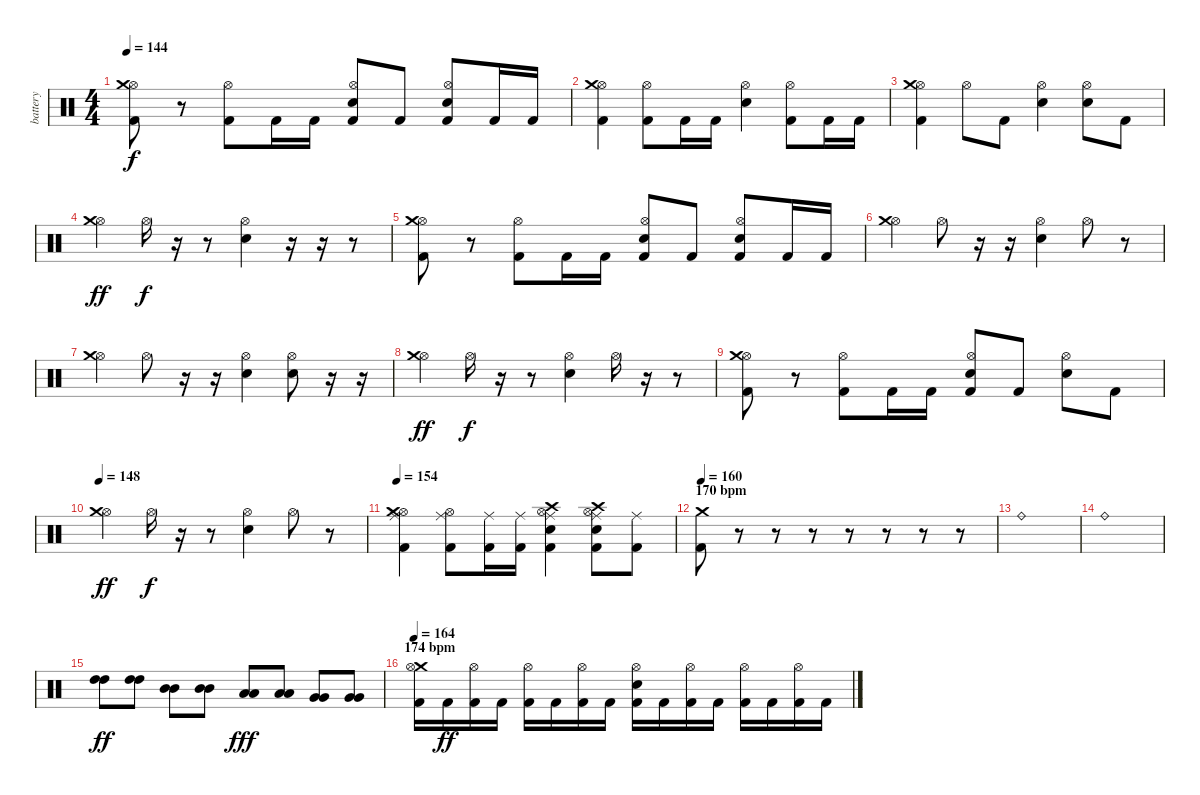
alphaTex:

\track ("battery" "battery") {instrument percussion}
\staff {score}
\articulation defaults
\ts (4 4)
\tempo 144
\clef neutral
\ks c
("Kick (hit) 2" "Hi-Hat (open)" "Crash medium (hit)").8{dy f} r.8 ("Kick (hit) 2" "Hi-Hat (open)").8 "Kick (hit) 2".16 "Kick (hit) 2".16 ("Electric Snare (hit)" "Hi-Hat (open)" "Kick (hit) 2").8 "Kick (hit) 2".8 ("Kick (hit) 2" "Electric Snare (hit)" "Hi-Hat (open)").8 "Kick (hit) 2".16 "Kick (hit) 2".16 |
("Kick (hit) 2" "Hi-Hat (open)" "Crash medium (hit)").4 ("Kick (hit) 2" "Hi-Hat (open)").8 "Kick (hit) 2".16 "Kick (hit) 2".16 ("Electric Snare (hit)" "Hi-Hat (open)").4 ("Kick (hit) 2" "Hi-Hat (open)").8 "Kick (hit) 2".16 "Kick (hit) 2".16 |
("Kick (hit) 2" "Hi-Hat (open)" "Crash medium (hit)").4 "Hi-Hat (open)".8 "Kick (hit) 2".8 ("Electric Snare (hit)" "Hi-Hat (open)").4 ("Electric Snare (hit)" "Hi-Hat (open)").8 "Kick (hit) 2".8 |
("Hi-Hat (open)" "Crash medium (hit)").4{dy ff} "Hi-Hat (open)".16{dy f} r.16 r.8 ("Electric Snare (hit)" "Hi-Hat (open)").4 r.16 r.16 r.8 |
("Kick (hit) 2" "Hi-Hat (open)" "Crash medium (hit)").8 r.8 ("Kick (hit) 2" "Hi-Hat (open)").8 "Kick (hit) 2".16 "Kick (hit) 2".16 ("Electric Snare (hit)" "Hi-Hat (open)" "Kick (hit) 2").8 "Kick (hit) 2".8 ("Kick (hit) 2" "Electric Snare (hit)" "Hi-Hat (open)").8 "Kick (hit) 2".16 "Kick (hit) 2".16 |
("Hi-Hat (open)" "Crash medium (hit)").4 "Hi-Hat (open)".8 r.16 r.16 ("Electric Snare (hit)" "Hi-Hat (open)").4 "Hi-Hat (open)".8 r.8 |
("Hi-Hat (open)" "Crash medium (hit)").4 "Hi-Hat (open)".8 r.16 r.16 ("Electric Snare (hit)" "Hi-Hat (open)").4 ("Electric Snare (hit)" "Hi-Hat (open)").8 r.16 r.16 |
("Hi-Hat (open)" "Crash medium (hit)").4{dy ff} "Hi-Hat (open)".16{dy f} r.16 r.8 ("Electric Snare (hit)" "Hi-Hat (open)").4 "Hi-Hat (open)".16 r.16 r.8 |
("Kick (hit) 2" "Hi-Hat (open)" "Crash medium (hit)").8 r.8 ("Kick (hit) 2" "Hi-Hat (open)").8 "Kick (hit) 2".16 "Kick (hit) 2".16 ("Electric Snare (hit)" "Hi-Hat (open)" "Kick (hit) 2").8 "Kick (hit) 2".8 ("Electric Snare (hit)" "Hi-Hat (open)").8 "Kick (hit) 2".8 |
\tempo 148
("Hi-Hat (open)" "Crash medium (hit)").4{dy ff} "Hi-Hat (open)".16{dy f} r.16 r.8 ("Electric Snare (hit)" "Hi-Hat (open)").4 "Hi-Hat (open)".8 r.8 |
\tempo 154
("Kick (hit) 2" "Hi-Hat (open)" "Crash medium (hit)" "Ride (middle)").4 ("Kick (hit) 2" "Hi-Hat (open)" "Ride (middle)").8 ("Kick (hit) 2" "Ride (middle)").16 ("Kick (hit) 2" "Ride (middle)").16 ("Kick (hit) 2" "Electric Snare (hit)" "Hi-Hat (open)" "Ride (middle)" "Crash high (hit)").4 ("Kick (hit) 2" "Electric Snare (hit)" "Hi-Hat (open)" "Ride (middle)" "Crash high (hit)").8 ("Kick (hit) 2" "Ride (middle)").8 |
\section ("" "170 bpm")
\tempo 160
("Crash medium (hit)" "Kick (hit) 2").8 r.8 r.8 r.8 r.8 r.8 r.8 r.8 |
"Ride (bell)".1 |
"Ride (bell)".1 |
("High Tom (hit)" "High Tom (hit)").8{dy ff} ("High Tom (hit)" "High Tom (hit)").8 ("Mid Tom (hit)" "Mid Tom (hit)").8 ("Mid Tom (hit)" "Mid Tom (hit)").8 ("Low Tom (hit)" "Low Tom (hit)").8{dy fff} ("Low Tom (hit)" "Low Tom (hit)").8 ("Very Low Tom (hit)" "Very Low Tom (hit)").8 ("Very Low Tom (hit)" "Very Low Tom (hit)").8 |
\section ("" "174 bpm")
\tempo 164
("Kick (hit) 2" "Crash medium (hit)" "Hi-Hat (open)").16 "Kick (hit) 2".16{dy ff} ("Kick (hit) 2" "Hi-Hat (open)").16 "Kick (hit) 2".16 ("Kick (hit) 2" "Hi-Hat (open)").16 "Kick (hit) 2".16 ("Kick (hit) 2" "Hi-Hat (open)").16 "Kick (hit) 2".16 ("Kick (hit) 2" "Electric Snare (hit)" "Hi-Hat (open)").16 "Kick (hit) 2".16 ("Kick (hit) 2" "Hi-Hat (open)").16 "Kick (hit) 2".16 ("Kick (hit) 2" "Hi-Hat (open)").16 "Kick (hit) 2".16 ("Kick (hit) 2" "Hi-Hat (open)").16 "Kick (hit) 2".16
